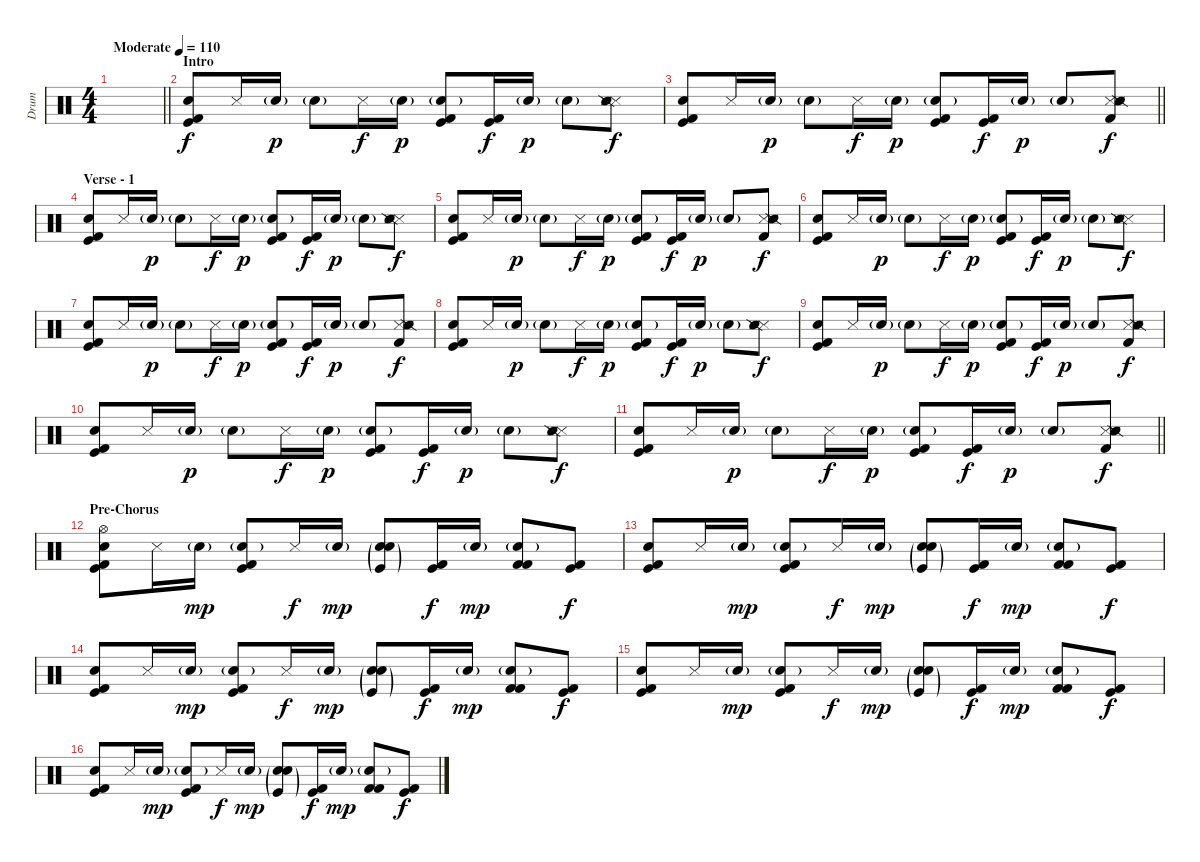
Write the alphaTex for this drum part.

\track ("Drum" "Drum") {instrument percussion}
\staff {score}
\articulation defaults
\ts (4 4)
\tempo (110 "Moderate")
\clef neutral
\barLineRight lightlight
\ks c
|
\section ("" "Intro")
("Hand Clap (hit)" "Kick (hit) 2" "Kick (hit)").8 "Snare (side stick) 3".16 "Hand Clap (hit)"{g}.16{dy p} "Hand Clap (hit)"{g}.8 "Snare (side stick) 3".16{dy f} "Hand Clap (hit)"{g}.16{dy p} ("Hand Clap (hit)"{g} "Kick (hit) 2" "Kick (hit)").8 ("Kick (hit) 2" "Kick (hit)").16{dy f} "Hand Clap (hit)"{g}.16{dy p} "Hand Clap (hit)"{g}.8 ("Metronome (hit)" "Snare (side stick) 3" "Snare (side stick) 2").8{dy f} |
\barLineRight lightlight
("Hand Clap (hit)" "Kick (hit) 2" "Kick (hit)").8 "Snare (side stick) 3".16 "Hand Clap (hit)"{g}.16{dy p} "Hand Clap (hit)"{g}.8 "Snare (side stick) 3".16{dy f} "Hand Clap (hit)"{g}.16{dy p} ("Hand Clap (hit)"{g} "Kick (hit) 2" "Kick (hit)").8 ("Kick (hit) 2" "Kick (hit)").16{dy f} "Hand Clap (hit)"{g}.16{dy p} "Hand Clap (hit)"{g}.8 ("Metronome (hit)" "Snare (side stick) 3" "Snare (side stick) 2" "Kick (hit) 2").8{dy f} |
\section ("" "Verse - 1")
("Hand Clap (hit)" "Kick (hit) 2" "Kick (hit)").8 "Snare (side stick) 3".16 "Hand Clap (hit)"{g}.16{dy p} "Hand Clap (hit)"{g}.8 "Snare (side stick) 3".16{dy f} "Hand Clap (hit)"{g}.16{dy p} ("Hand Clap (hit)"{g} "Kick (hit) 2" "Kick (hit)").8 ("Kick (hit) 2" "Kick (hit)").16{dy f} "Hand Clap (hit)"{g}.16{dy p} "Hand Clap (hit)"{g}.8 ("Metronome (hit)" "Snare (side stick) 3" "Snare (side stick) 2").8{dy f} |
("Hand Clap (hit)" "Kick (hit) 2" "Kick (hit)").8 "Snare (side stick) 3".16 "Hand Clap (hit)"{g}.16{dy p} "Hand Clap (hit)"{g}.8 "Snare (side stick) 3".16{dy f} "Hand Clap (hit)"{g}.16{dy p} ("Hand Clap (hit)"{g} "Kick (hit) 2" "Kick (hit)").8 ("Kick (hit) 2" "Kick (hit)").16{dy f} "Hand Clap (hit)"{g}.16{dy p} "Hand Clap (hit)"{g}.8 ("Metronome (hit)" "Snare (side stick) 3" "Snare (side stick) 2" "Kick (hit) 2").8{dy f} |
("Hand Clap (hit)" "Kick (hit) 2" "Kick (hit)").8 "Snare (side stick) 3".16 "Hand Clap (hit)"{g}.16{dy p} "Hand Clap (hit)"{g}.8 "Snare (side stick) 3".16{dy f} "Hand Clap (hit)"{g}.16{dy p} ("Hand Clap (hit)"{g} "Kick (hit) 2" "Kick (hit)").8 ("Kick (hit) 2" "Kick (hit)").16{dy f} "Hand Clap (hit)"{g}.16{dy p} "Hand Clap (hit)"{g}.8 ("Metronome (hit)" "Snare (side stick) 3" "Snare (side stick) 2").8{dy f} |
("Hand Clap (hit)" "Kick (hit) 2" "Kick (hit)").8 "Snare (side stick) 3".16 "Hand Clap (hit)"{g}.16{dy p} "Hand Clap (hit)"{g}.8 "Snare (side stick) 3".16{dy f} "Hand Clap (hit)"{g}.16{dy p} ("Hand Clap (hit)"{g} "Kick (hit) 2" "Kick (hit)").8 ("Kick (hit) 2" "Kick (hit)").16{dy f} "Hand Clap (hit)"{g}.16{dy p} "Hand Clap (hit)"{g}.8 ("Metronome (hit)" "Snare (side stick) 3" "Snare (side stick) 2" "Kick (hit) 2").8{dy f} |
("Hand Clap (hit)" "Kick (hit) 2" "Kick (hit)").8 "Snare (side stick) 3".16 "Hand Clap (hit)"{g}.16{dy p} "Hand Clap (hit)"{g}.8 "Snare (side stick) 3".16{dy f} "Hand Clap (hit)"{g}.16{dy p} ("Hand Clap (hit)"{g} "Kick (hit) 2" "Kick (hit)").8 ("Kick (hit) 2" "Kick (hit)").16{dy f} "Hand Clap (hit)"{g}.16{dy p} "Hand Clap (hit)"{g}.8 ("Metronome (hit)" "Snare (side stick) 3" "Snare (side stick) 2").8{dy f} |
("Hand Clap (hit)" "Kick (hit) 2" "Kick (hit)").8 "Snare (side stick) 3".16 "Hand Clap (hit)"{g}.16{dy p} "Hand Clap (hit)"{g}.8 "Snare (side stick) 3".16{dy f} "Hand Clap (hit)"{g}.16{dy p} ("Hand Clap (hit)"{g} "Kick (hit) 2" "Kick (hit)").8 ("Kick (hit) 2" "Kick (hit)").16{dy f} "Hand Clap (hit)"{g}.16{dy p} "Hand Clap (hit)"{g}.8 ("Metronome (hit)" "Snare (side stick) 3" "Snare (side stick) 2" "Kick (hit) 2").8{dy f} |
("Hand Clap (hit)" "Kick (hit) 2" "Kick (hit)").8 "Snare (side stick) 3".16 "Hand Clap (hit)"{g}.16{dy p} "Hand Clap (hit)"{g}.8 "Snare (side stick) 3".16{dy f} "Hand Clap (hit)"{g}.16{dy p} ("Hand Clap (hit)"{g} "Kick (hit) 2" "Kick (hit)").8 ("Kick (hit) 2" "Kick (hit)").16{dy f} "Hand Clap (hit)"{g}.16{dy p} "Hand Clap (hit)"{g}.8 ("Metronome (hit)" "Snare (side stick) 3" "Snare (side stick) 2").8{dy f} |
\barLineRight lightlight
("Hand Clap (hit)" "Kick (hit) 2" "Kick (hit)").8 "Snare (side stick) 3".16 "Hand Clap (hit)"{g}.16{dy p} "Hand Clap (hit)"{g}.8 "Snare (side stick) 3".16{dy f} "Hand Clap (hit)"{g}.16{dy p} ("Hand Clap (hit)"{g} "Kick (hit) 2" "Kick (hit)").8 ("Kick (hit) 2" "Kick (hit)").16{dy f} "Hand Clap (hit)"{g}.16{dy p} "Hand Clap (hit)"{g}.8 ("Metronome (hit)" "Snare (side stick) 3" "Snare (side stick) 2" "Kick (hit) 2").8{dy f} |
\section ("" "Pre-Chorus")
("Hi-Hat (open)" "Hand Clap (hit)" "Kick (hit) 2" "Kick (hit)").8 "Snare (side stick) 3".16 "Hand Clap (hit)"{g}.16{dy mp} ("Hand Clap (hit)"{g} "Kick (hit) 2" "Kick (hit)").8 "Snare (side stick) 3".16{dy f} "Hand Clap (hit)"{g}.16{dy mp} ("Hand Clap (hit)"{g} "Snare (hit) 2"{g} "Kick (hit)"{g}).8 ("Kick (hit) 2" "Kick (hit)").16{dy f} "Hand Clap (hit)"{g}.16{dy mp} ("Hand Clap (hit)"{g} "Kick (hit) 2" "Kick (hit) 2").8 ("Kick (hit) 2" "Kick (hit)").8{dy f} |
("Hand Clap (hit)" "Kick (hit) 2" "Kick (hit)").8 "Snare (side stick) 3".16 "Hand Clap (hit)"{g}.16{dy mp} ("Hand Clap (hit)"{g} "Kick (hit) 2" "Kick (hit)").8 "Snare (side stick) 3".16{dy f} "Hand Clap (hit)"{g}.16{dy mp} ("Hand Clap (hit)"{g} "Snare (hit) 2"{g} "Kick (hit)"{g}).8 ("Kick (hit) 2" "Kick (hit)").16{dy f} "Hand Clap (hit)"{g}.16{dy mp} ("Hand Clap (hit)"{g} "Kick (hit) 2" "Kick (hit) 2").8 ("Kick (hit) 2" "Kick (hit)").8{dy f} |
("Hand Clap (hit)" "Kick (hit) 2" "Kick (hit)").8 "Snare (side stick) 3".16 "Hand Clap (hit)"{g}.16{dy mp} ("Hand Clap (hit)"{g} "Kick (hit) 2" "Kick (hit)").8 "Snare (side stick) 3".16{dy f} "Hand Clap (hit)"{g}.16{dy mp} ("Hand Clap (hit)"{g} "Snare (hit) 2"{g} "Kick (hit)"{g}).8 ("Kick (hit) 2" "Kick (hit)").16{dy f} "Hand Clap (hit)"{g}.16{dy mp} ("Hand Clap (hit)"{g} "Kick (hit) 2" "Kick (hit) 2").8 ("Kick (hit) 2" "Kick (hit)").8{dy f} |
("Hand Clap (hit)" "Kick (hit) 2" "Kick (hit)").8 "Snare (side stick) 3".16 "Hand Clap (hit)"{g}.16{dy mp} ("Hand Clap (hit)"{g} "Kick (hit) 2" "Kick (hit)").8 "Snare (side stick) 3".16{dy f} "Hand Clap (hit)"{g}.16{dy mp} ("Hand Clap (hit)"{g} "Snare (hit) 2"{g} "Kick (hit)"{g}).8 ("Kick (hit) 2" "Kick (hit)").16{dy f} "Hand Clap (hit)"{g}.16{dy mp} ("Hand Clap (hit)"{g} "Kick (hit) 2" "Kick (hit) 2").8 ("Kick (hit) 2" "Kick (hit)").8{dy f} |
("Hand Clap (hit)" "Kick (hit) 2" "Kick (hit)").8 "Snare (side stick) 3".16 "Hand Clap (hit)"{g}.16{dy mp} ("Hand Clap (hit)"{g} "Kick (hit) 2" "Kick (hit)").8 "Snare (side stick) 3".16{dy f} "Hand Clap (hit)"{g}.16{dy mp} ("Hand Clap (hit)"{g} "Snare (hit) 2"{g} "Kick (hit)"{g}).8 ("Kick (hit) 2" "Kick (hit)").16{dy f} "Hand Clap (hit)"{g}.16{dy mp} ("Hand Clap (hit)"{g} "Kick (hit) 2" "Kick (hit) 2").8 ("Kick (hit) 2" "Kick (hit)").8{dy f}
